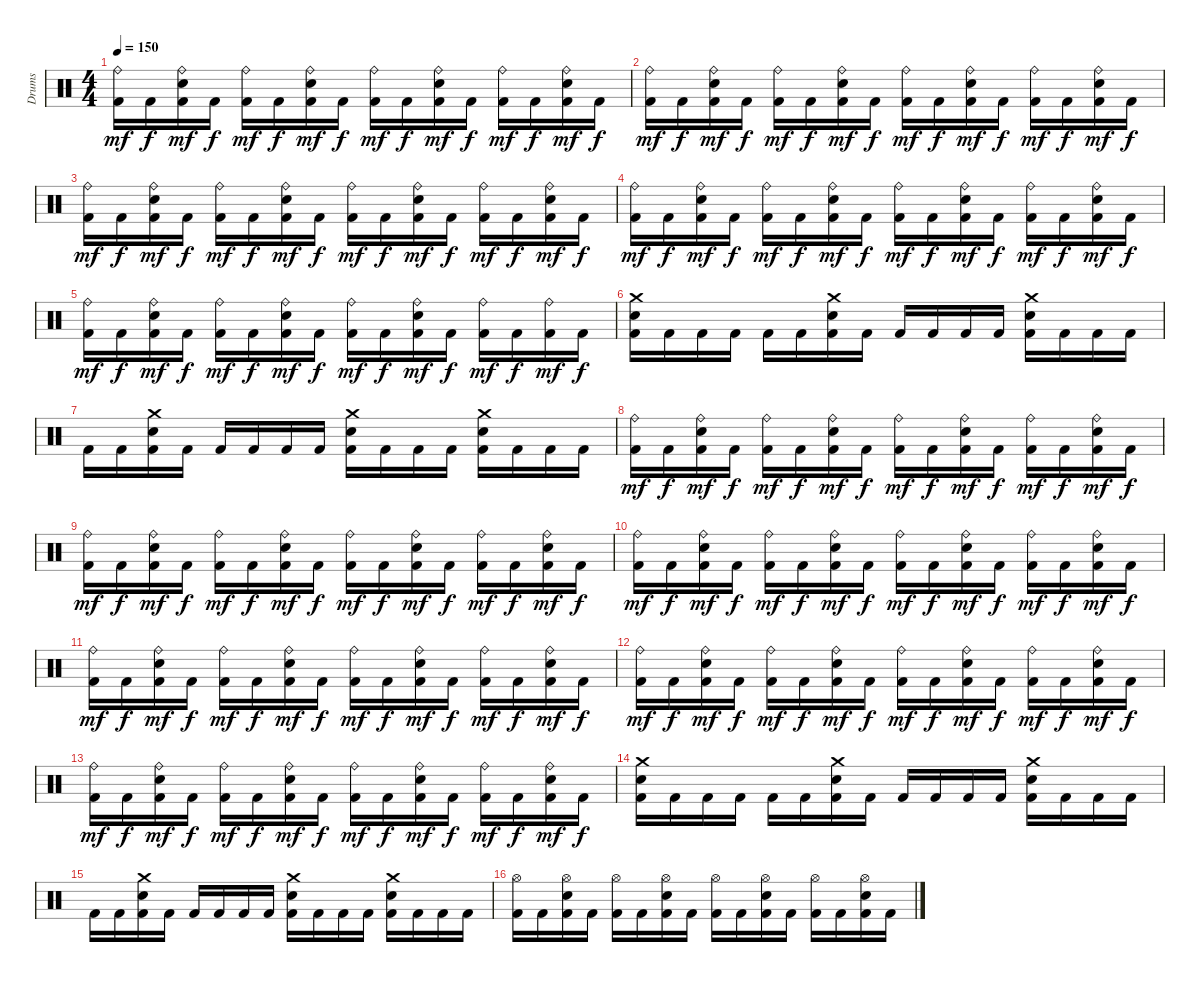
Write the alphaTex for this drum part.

\track ("Drums" "Drums") {instrument percussion}
\staff {score}
\articulation defaults
\ts (4 4)
\tempo 150
\clef neutral
\ks c
("Kick (hit) 2" "Ride (bell)").16{dy mf} "Kick (hit) 2".16{dy f} ("Kick (hit) 2" "Snare (hit) 2" "Ride (bell)").16{dy mf} "Kick (hit) 2".16{dy f} ("Kick (hit) 2" "Ride (bell)").16{dy mf} "Kick (hit) 2".16{dy f} ("Kick (hit) 2" "Snare (hit) 2" "Ride (bell)").16{dy mf} "Kick (hit) 2".16{dy f} ("Kick (hit) 2" "Ride (bell)").16{dy mf} "Kick (hit) 2".16{dy f} ("Kick (hit) 2" "Snare (hit) 2" "Ride (bell)").16{dy mf} "Kick (hit) 2".16{dy f} ("Kick (hit) 2" "Ride (bell)").16{dy mf} "Kick (hit) 2".16{dy f} ("Kick (hit) 2" "Snare (hit) 2" "Ride (bell)").16{dy mf} "Kick (hit) 2".16{dy f} |
("Kick (hit) 2" "Ride (bell)").16{dy mf} "Kick (hit) 2".16{dy f} ("Kick (hit) 2" "Snare (hit) 2" "Ride (bell)").16{dy mf} "Kick (hit) 2".16{dy f} ("Kick (hit) 2" "Ride (bell)").16{dy mf} "Kick (hit) 2".16{dy f} ("Kick (hit) 2" "Snare (hit) 2" "Ride (bell)").16{dy mf} "Kick (hit) 2".16{dy f} ("Kick (hit) 2" "Ride (bell)").16{dy mf} "Kick (hit) 2".16{dy f} ("Kick (hit) 2" "Snare (hit) 2" "Ride (bell)").16{dy mf} "Kick (hit) 2".16{dy f} ("Kick (hit) 2" "Ride (bell)").16{dy mf} "Kick (hit) 2".16{dy f} ("Kick (hit) 2" "Snare (hit) 2" "Ride (bell)").16{dy mf} "Kick (hit) 2".16{dy f} |
("Kick (hit) 2" "Ride (bell)").16{dy mf} "Kick (hit) 2".16{dy f} ("Kick (hit) 2" "Snare (hit) 2" "Ride (bell)").16{dy mf} "Kick (hit) 2".16{dy f} ("Kick (hit) 2" "Ride (bell)").16{dy mf} "Kick (hit) 2".16{dy f} ("Kick (hit) 2" "Snare (hit) 2" "Ride (bell)").16{dy mf} "Kick (hit) 2".16{dy f} ("Kick (hit) 2" "Ride (bell)").16{dy mf} "Kick (hit) 2".16{dy f} ("Kick (hit) 2" "Snare (hit) 2" "Ride (bell)").16{dy mf} "Kick (hit) 2".16{dy f} ("Kick (hit) 2" "Ride (bell)").16{dy mf} "Kick (hit) 2".16{dy f} ("Kick (hit) 2" "Snare (hit) 2" "Ride (bell)").16{dy mf} "Kick (hit) 2".16{dy f} |
("Kick (hit) 2" "Ride (bell)").16{dy mf} "Kick (hit) 2".16{dy f} ("Kick (hit) 2" "Snare (hit) 2" "Ride (bell)").16{dy mf} "Kick (hit) 2".16{dy f} ("Kick (hit) 2" "Ride (bell)").16{dy mf} "Kick (hit) 2".16{dy f} ("Kick (hit) 2" "Snare (hit) 2" "Ride (bell)").16{dy mf} "Kick (hit) 2".16{dy f} ("Kick (hit) 2" "Ride (bell)").16{dy mf} "Kick (hit) 2".16{dy f} ("Kick (hit) 2" "Snare (hit) 2" "Ride (bell)").16{dy mf} "Kick (hit) 2".16{dy f} ("Kick (hit) 2" "Ride (bell)").16{dy mf} "Kick (hit) 2".16{dy f} ("Kick (hit) 2" "Snare (hit) 2" "Ride (bell)").16{dy mf} "Kick (hit) 2".16{dy f} |
("Kick (hit) 2" "Ride (bell)").16{dy mf} "Kick (hit) 2".16{dy f} ("Kick (hit) 2" "Snare (hit) 2" "Ride (bell)").16{dy mf} "Kick (hit) 2".16{dy f} ("Kick (hit) 2" "Ride (bell)").16{dy mf} "Kick (hit) 2".16{dy f} ("Kick (hit) 2" "Snare (hit) 2" "Ride (bell)").16{dy mf} "Kick (hit) 2".16{dy f} ("Kick (hit) 2" "Ride (bell)").16{dy mf} "Kick (hit) 2".16{dy f} ("Kick (hit) 2" "Snare (hit) 2" "Ride (bell)").16{dy mf} "Kick (hit) 2".16{dy f} ("Kick (hit) 2" "Ride (bell)").16{dy mf} "Kick (hit) 2".16{dy f} ("Kick (hit) 2" "Ride (bell)").16{dy mf} "Kick (hit) 2".16{dy f} |
("Kick (hit) 2" "Snare (hit) 2" "Crash medium (hit)").16 "Kick (hit) 2".16 "Kick (hit) 2".16 "Kick (hit) 2".16 "Kick (hit) 2".16 "Kick (hit) 2".16 ("Kick (hit) 2" "Snare (hit) 2" "Crash medium (hit)").16 "Kick (hit) 2".16 "Kick (hit) 2".16 "Kick (hit) 2".16 "Kick (hit) 2".16 "Kick (hit) 2".16 ("Kick (hit) 2" "Snare (hit) 2" "Crash medium (hit)").16 "Kick (hit) 2".16 "Kick (hit) 2".16 "Kick (hit) 2".16 |
"Kick (hit) 2".16 "Kick (hit) 2".16 ("Kick (hit) 2" "Snare (hit) 2" "Crash medium (hit)").16 "Kick (hit) 2".16 "Kick (hit) 2".16 "Kick (hit) 2".16 "Kick (hit) 2".16 "Kick (hit) 2".16 ("Kick (hit) 2" "Snare (hit) 2" "Crash medium (hit)").16 "Kick (hit) 2".16 "Kick (hit) 2".16 "Kick (hit) 2".16 ("Kick (hit) 2" "Snare (hit) 2" "Crash medium (hit)").16 "Kick (hit) 2".16 "Kick (hit) 2".16 "Kick (hit) 2".16 |
("Kick (hit) 2" "Ride (bell)").16{dy mf} "Kick (hit) 2".16{dy f} ("Kick (hit) 2" "Snare (hit) 2" "Ride (bell)").16{dy mf} "Kick (hit) 2".16{dy f} ("Kick (hit) 2" "Ride (bell)").16{dy mf} "Kick (hit) 2".16{dy f} ("Kick (hit) 2" "Snare (hit) 2" "Ride (bell)").16{dy mf} "Kick (hit) 2".16{dy f} ("Kick (hit) 2" "Ride (bell)").16{dy mf} "Kick (hit) 2".16{dy f} ("Kick (hit) 2" "Snare (hit) 2" "Ride (bell)").16{dy mf} "Kick (hit) 2".16{dy f} ("Kick (hit) 2" "Ride (bell)").16{dy mf} "Kick (hit) 2".16{dy f} ("Kick (hit) 2" "Snare (hit) 2" "Ride (bell)").16{dy mf} "Kick (hit) 2".16{dy f} |
("Kick (hit) 2" "Ride (bell)").16{dy mf} "Kick (hit) 2".16{dy f} ("Kick (hit) 2" "Snare (hit) 2" "Ride (bell)").16{dy mf} "Kick (hit) 2".16{dy f} ("Kick (hit) 2" "Ride (bell)").16{dy mf} "Kick (hit) 2".16{dy f} ("Kick (hit) 2" "Snare (hit) 2" "Ride (bell)").16{dy mf} "Kick (hit) 2".16{dy f} ("Kick (hit) 2" "Ride (bell)").16{dy mf} "Kick (hit) 2".16{dy f} ("Kick (hit) 2" "Snare (hit) 2" "Ride (bell)").16{dy mf} "Kick (hit) 2".16{dy f} ("Kick (hit) 2" "Ride (bell)").16{dy mf} "Kick (hit) 2".16{dy f} ("Kick (hit) 2" "Snare (hit) 2" "Ride (bell)").16{dy mf} "Kick (hit) 2".16{dy f} |
("Kick (hit) 2" "Ride (bell)").16{dy mf} "Kick (hit) 2".16{dy f} ("Kick (hit) 2" "Snare (hit) 2" "Ride (bell)").16{dy mf} "Kick (hit) 2".16{dy f} ("Kick (hit) 2" "Ride (bell)").16{dy mf} "Kick (hit) 2".16{dy f} ("Kick (hit) 2" "Snare (hit) 2" "Ride (bell)").16{dy mf} "Kick (hit) 2".16{dy f} ("Kick (hit) 2" "Ride (bell)").16{dy mf} "Kick (hit) 2".16{dy f} ("Kick (hit) 2" "Snare (hit) 2" "Ride (bell)").16{dy mf} "Kick (hit) 2".16{dy f} ("Kick (hit) 2" "Ride (bell)").16{dy mf} "Kick (hit) 2".16{dy f} ("Kick (hit) 2" "Snare (hit) 2" "Ride (bell)").16{dy mf} "Kick (hit) 2".16{dy f} |
("Kick (hit) 2" "Ride (bell)").16{dy mf} "Kick (hit) 2".16{dy f} ("Kick (hit) 2" "Snare (hit) 2" "Ride (bell)").16{dy mf} "Kick (hit) 2".16{dy f} ("Kick (hit) 2" "Ride (bell)").16{dy mf} "Kick (hit) 2".16{dy f} ("Kick (hit) 2" "Snare (hit) 2" "Ride (bell)").16{dy mf} "Kick (hit) 2".16{dy f} ("Kick (hit) 2" "Ride (bell)").16{dy mf} "Kick (hit) 2".16{dy f} ("Kick (hit) 2" "Snare (hit) 2" "Ride (bell)").16{dy mf} "Kick (hit) 2".16{dy f} ("Kick (hit) 2" "Ride (bell)").16{dy mf} "Kick (hit) 2".16{dy f} ("Kick (hit) 2" "Snare (hit) 2" "Ride (bell)").16{dy mf} "Kick (hit) 2".16{dy f} |
("Kick (hit) 2" "Ride (bell)").16{dy mf} "Kick (hit) 2".16{dy f} ("Kick (hit) 2" "Snare (hit) 2" "Ride (bell)").16{dy mf} "Kick (hit) 2".16{dy f} ("Kick (hit) 2" "Ride (bell)").16{dy mf} "Kick (hit) 2".16{dy f} ("Kick (hit) 2" "Snare (hit) 2" "Ride (bell)").16{dy mf} "Kick (hit) 2".16{dy f} ("Kick (hit) 2" "Ride (bell)").16{dy mf} "Kick (hit) 2".16{dy f} ("Kick (hit) 2" "Snare (hit) 2" "Ride (bell)").16{dy mf} "Kick (hit) 2".16{dy f} ("Kick (hit) 2" "Ride (bell)").16{dy mf} "Kick (hit) 2".16{dy f} ("Kick (hit) 2" "Snare (hit) 2" "Ride (bell)").16{dy mf} "Kick (hit) 2".16{dy f} |
("Kick (hit) 2" "Ride (bell)").16{dy mf} "Kick (hit) 2".16{dy f} ("Kick (hit) 2" "Snare (hit) 2" "Ride (bell)").16{dy mf} "Kick (hit) 2".16{dy f} ("Kick (hit) 2" "Ride (bell)").16{dy mf} "Kick (hit) 2".16{dy f} ("Kick (hit) 2" "Snare (hit) 2" "Ride (bell)").16{dy mf} "Kick (hit) 2".16{dy f} ("Kick (hit) 2" "Ride (bell)").16{dy mf} "Kick (hit) 2".16{dy f} ("Kick (hit) 2" "Snare (hit) 2" "Ride (bell)").16{dy mf} "Kick (hit) 2".16{dy f} ("Kick (hit) 2" "Ride (bell)").16{dy mf} "Kick (hit) 2".16{dy f} ("Kick (hit) 2" "Snare (hit) 2" "Ride (bell)").16{dy mf} "Kick (hit) 2".16{dy f} |
("Kick (hit) 2" "Snare (hit) 2" "Crash medium (hit)").16 "Kick (hit) 2".16 "Kick (hit) 2".16 "Kick (hit) 2".16 "Kick (hit) 2".16 "Kick (hit) 2".16 ("Kick (hit) 2" "Snare (hit) 2" "Crash medium (hit)").16 "Kick (hit) 2".16 "Kick (hit) 2".16 "Kick (hit) 2".16 "Kick (hit) 2".16 "Kick (hit) 2".16 ("Kick (hit) 2" "Snare (hit) 2" "Crash medium (hit)").16 "Kick (hit) 2".16 "Kick (hit) 2".16 "Kick (hit) 2".16 |
"Kick (hit) 2".16 "Kick (hit) 2".16 ("Kick (hit) 2" "Snare (hit) 2" "Crash medium (hit)").16 "Kick (hit) 2".16 "Kick (hit) 2".16 "Kick (hit) 2".16 "Kick (hit) 2".16 "Kick (hit) 2".16 ("Kick (hit) 2" "Snare (hit) 2" "Crash medium (hit)").16 "Kick (hit) 2".16 "Kick (hit) 2".16 "Kick (hit) 2".16 ("Kick (hit) 2" "Snare (hit) 2" "Crash medium (hit)").16 "Kick (hit) 2".16 "Kick (hit) 2".16 "Kick (hit) 2".16 |
("Kick (hit) 2" "Hi-Hat (open)").16 "Kick (hit) 2".16 ("Kick (hit) 2" "Snare (hit) 2" "Hi-Hat (open)").16 "Kick (hit) 2".16 ("Kick (hit) 2" "Hi-Hat (open)").16 "Kick (hit) 2".16 ("Kick (hit) 2" "Snare (hit) 2" "Hi-Hat (open)").16 "Kick (hit) 2".16 ("Kick (hit) 2" "Hi-Hat (open)").16 "Kick (hit) 2".16 ("Kick (hit) 2" "Snare (hit) 2" "Hi-Hat (open)").16 "Kick (hit) 2".16 ("Kick (hit) 2" "Hi-Hat (open)").16 "Kick (hit) 2".16 ("Kick (hit) 2" "Snare (hit) 2" "Hi-Hat (open)").16 "Kick (hit) 2".16
